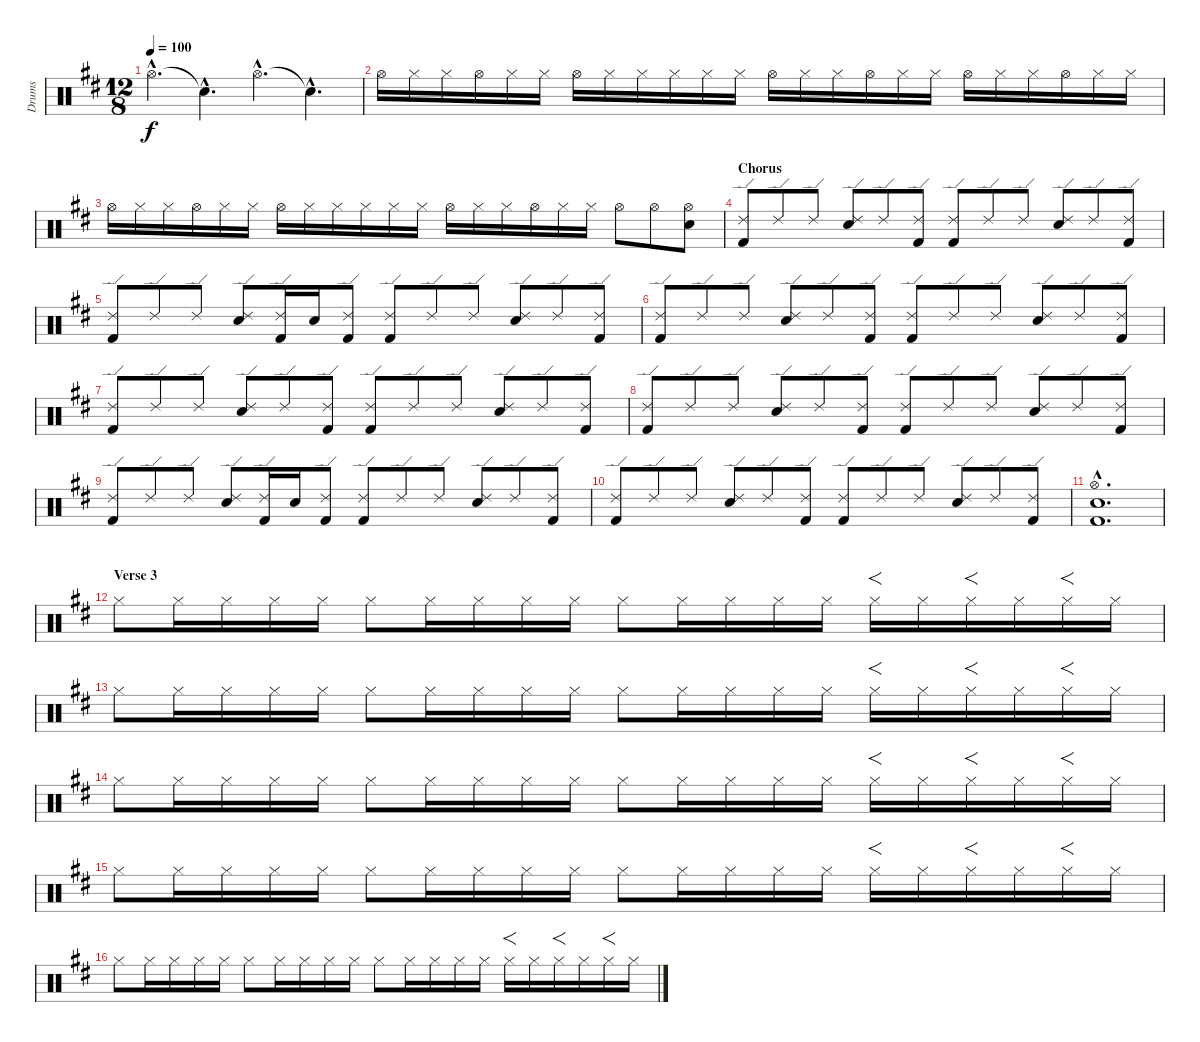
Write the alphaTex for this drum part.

\track ("Drums" "Drums") {instrument percussion}
\staff {score}
\articulation defaults
\ts (12 8)
\tempo 100
\clef neutral
\ks d "Hi-Hat (open)"{hac}.4{d dy f} "Snare (hit)"{hac t}.4{d} "Hi-Hat (open)"{hac}.4{d} "Snare (hit)"{hac t}.4{d}
|
"Hi-Hat (open)".16 "Hi-Hat (closed)".16 "Hi-Hat (closed)".16 "Hi-Hat (open)".16 "Hi-Hat (closed)".16 "Hi-Hat (closed)".16 "Hi-Hat (open)".16 "Hi-Hat (closed)".16 "Hi-Hat (closed)".16 "Hi-Hat (closed)".16 "Hi-Hat (closed)".16 "Hi-Hat (closed)".16 "Hi-Hat (open)".16 "Hi-Hat (closed)".16 "Hi-Hat (closed)".16 "Hi-Hat (open)".16 "Hi-Hat (closed)".16 "Hi-Hat (closed)".16 "Hi-Hat (open)".16 "Hi-Hat (closed)".16 "Hi-Hat (closed)".16 "Hi-Hat (open)".16 "Hi-Hat (closed)".16 "Hi-Hat (closed)".16 |
"Hi-Hat (open)".16 "Hi-Hat (closed)".16 "Hi-Hat (closed)".16 "Hi-Hat (open)".16 "Hi-Hat (closed)".16 "Hi-Hat (closed)".16 "Hi-Hat (open)".16 "Hi-Hat (closed)".16 "Hi-Hat (closed)".16 "Hi-Hat (closed)".16 "Hi-Hat (closed)".16 "Hi-Hat (closed)".16 "Hi-Hat (open)".16 "Hi-Hat (closed)".16 "Hi-Hat (closed)".16 "Hi-Hat (open)".16 "Hi-Hat (closed)".16 "Hi-Hat (closed)".16 "Hi-Hat (open)".8 "Hi-Hat (open)".8 ("Hi-Hat (open)" "Snare (hit) 2").8 |
\section ("" "Chorus")
("Ride (edge) 2" "Kick (hit) 2").8 "Ride (edge) 2".8 "Ride (edge) 2".8 ("Ride (edge) 2" "Snare (hit) 2").8 "Ride (edge) 2".8 ("Ride (edge) 2" "Kick (hit) 2").8 ("Ride (edge) 2" "Kick (hit) 2").8 "Ride (edge) 2".8 "Ride (edge) 2".8 ("Ride (edge) 2" "Snare (hit) 2").8 "Ride (edge) 2".8 ("Ride (edge) 2" "Kick (hit) 2").8 |
("Ride (edge) 2" "Kick (hit) 2").8 "Ride (edge) 2".8 "Ride (edge) 2".8 ("Ride (edge) 2" "Snare (hit) 2").8 ("Ride (edge) 2" "Kick (hit) 2").16 "Snare (hit) 2".16 ("Ride (edge) 2" "Kick (hit) 2").8 ("Ride (edge) 2" "Kick (hit) 2").8 "Ride (edge) 2".8 "Ride (edge) 2".8 ("Ride (edge) 2" "Snare (hit) 2").8 "Ride (edge) 2".8 ("Ride (edge) 2" "Kick (hit) 2").8 |
("Ride (edge) 2" "Kick (hit) 2").8 "Ride (edge) 2".8 "Ride (edge) 2".8 ("Ride (edge) 2" "Snare (hit) 2").8 "Ride (edge) 2".8 ("Ride (edge) 2" "Kick (hit) 2").8 ("Ride (edge) 2" "Kick (hit) 2").8 "Ride (edge) 2".8 "Ride (edge) 2".8 ("Ride (edge) 2" "Snare (hit) 2").8 "Ride (edge) 2".8 ("Ride (edge) 2" "Kick (hit) 2").8 |
("Ride (edge) 2" "Kick (hit) 2").8 "Ride (edge) 2".8 "Ride (edge) 2".8 ("Ride (edge) 2" "Snare (hit) 2").8 "Ride (edge) 2".8 ("Ride (edge) 2" "Kick (hit) 2").8 ("Ride (edge) 2" "Kick (hit) 2").8 "Ride (edge) 2".8 "Ride (edge) 2".8 ("Ride (edge) 2" "Snare (hit) 2").8 "Ride (edge) 2".8 ("Ride (edge) 2" "Kick (hit) 2").8 |
("Ride (edge) 2" "Kick (hit) 2").8 "Ride (edge) 2".8 "Ride (edge) 2".8 ("Ride (edge) 2" "Snare (hit) 2").8 "Ride (edge) 2".8 ("Ride (edge) 2" "Kick (hit) 2").8 ("Ride (edge) 2" "Kick (hit) 2").8 "Ride (edge) 2".8 "Ride (edge) 2".8 ("Ride (edge) 2" "Snare (hit) 2").8 "Ride (edge) 2".8 ("Ride (edge) 2" "Kick (hit) 2").8 |
("Ride (edge) 2" "Kick (hit) 2").8 "Ride (edge) 2".8 "Ride (edge) 2".8 ("Ride (edge) 2" "Snare (hit) 2").8 ("Ride (edge) 2" "Kick (hit) 2").16 "Snare (hit) 2".16 ("Ride (edge) 2" "Kick (hit) 2").8 ("Ride (edge) 2" "Kick (hit) 2").8 "Ride (edge) 2".8 "Ride (edge) 2".8 ("Ride (edge) 2" "Snare (hit) 2").8 "Ride (edge) 2".8 ("Ride (edge) 2" "Kick (hit) 2").8 |
("Ride (edge) 2" "Kick (hit) 2").8 "Ride (edge) 2".8 "Ride (edge) 2".8 ("Ride (edge) 2" "Snare (hit) 2").8 "Ride (edge) 2".8 ("Ride (edge) 2" "Kick (hit) 2").8 ("Ride (edge) 2" "Kick (hit) 2").8 "Ride (edge) 2".8 "Ride (edge) 2".8 ("Ride (edge) 2" "Snare (hit) 2").8 "Ride (edge) 2".8 ("Ride (edge) 2" "Kick (hit) 2").8 |
("Hi-Hat (open)"{hac} "Snare (hit) 2"{hac} "Kick (hit) 2"{hac}).1{d} |
\section ("" "Verse 3")
"Hi-Hat (closed)".8 "Hi-Hat (closed)".16 "Hi-Hat (closed)".16 "Hi-Hat (closed)".16 "Hi-Hat (closed)".16 "Hi-Hat (closed)".8 "Hi-Hat (closed)".16 "Hi-Hat (closed)".16 "Hi-Hat (closed)".16 "Hi-Hat (closed)".16 "Hi-Hat (closed)".8 "Hi-Hat (closed)".16 "Hi-Hat (closed)".16 "Hi-Hat (closed)".16 "Hi-Hat (closed)".16 "Hi-Hat (closed)".16{f} "Hi-Hat (closed)".16 "Hi-Hat (closed)".16{f} "Hi-Hat (closed)".16 "Hi-Hat (closed)".16{f} "Hi-Hat (closed)".16 |
"Hi-Hat (closed)".8 "Hi-Hat (closed)".16 "Hi-Hat (closed)".16 "Hi-Hat (closed)".16 "Hi-Hat (closed)".16 "Hi-Hat (closed)".8 "Hi-Hat (closed)".16 "Hi-Hat (closed)".16 "Hi-Hat (closed)".16 "Hi-Hat (closed)".16 "Hi-Hat (closed)".8 "Hi-Hat (closed)".16 "Hi-Hat (closed)".16 "Hi-Hat (closed)".16 "Hi-Hat (closed)".16 "Hi-Hat (closed)".16{f} "Hi-Hat (closed)".16 "Hi-Hat (closed)".16{f} "Hi-Hat (closed)".16 "Hi-Hat (closed)".16{f} "Hi-Hat (closed)".16 |
"Hi-Hat (closed)".8 "Hi-Hat (closed)".16 "Hi-Hat (closed)".16 "Hi-Hat (closed)".16 "Hi-Hat (closed)".16 "Hi-Hat (closed)".8 "Hi-Hat (closed)".16 "Hi-Hat (closed)".16 "Hi-Hat (closed)".16 "Hi-Hat (closed)".16 "Hi-Hat (closed)".8 "Hi-Hat (closed)".16 "Hi-Hat (closed)".16 "Hi-Hat (closed)".16 "Hi-Hat (closed)".16 "Hi-Hat (closed)".16{f} "Hi-Hat (closed)".16 "Hi-Hat (closed)".16{f} "Hi-Hat (closed)".16 "Hi-Hat (closed)".16{f} "Hi-Hat (closed)".16 |
"Hi-Hat (closed)".8 "Hi-Hat (closed)".16 "Hi-Hat (closed)".16 "Hi-Hat (closed)".16 "Hi-Hat (closed)".16 "Hi-Hat (closed)".8 "Hi-Hat (closed)".16 "Hi-Hat (closed)".16 "Hi-Hat (closed)".16 "Hi-Hat (closed)".16 "Hi-Hat (closed)".8 "Hi-Hat (closed)".16 "Hi-Hat (closed)".16 "Hi-Hat (closed)".16 "Hi-Hat (closed)".16 "Hi-Hat (closed)".16{f} "Hi-Hat (closed)".16 "Hi-Hat (closed)".16{f} "Hi-Hat (closed)".16 "Hi-Hat (closed)".16{f} "Hi-Hat (closed)".16 |
"Hi-Hat (closed)".8 "Hi-Hat (closed)".16 "Hi-Hat (closed)".16 "Hi-Hat (closed)".16 "Hi-Hat (closed)".16 "Hi-Hat (closed)".8 "Hi-Hat (closed)".16 "Hi-Hat (closed)".16 "Hi-Hat (closed)".16 "Hi-Hat (closed)".16 "Hi-Hat (closed)".8 "Hi-Hat (closed)".16 "Hi-Hat (closed)".16 "Hi-Hat (closed)".16 "Hi-Hat (closed)".16 "Hi-Hat (closed)".16{f} "Hi-Hat (closed)".16 "Hi-Hat (closed)".16{f} "Hi-Hat (closed)".16 "Hi-Hat (closed)".16{f} "Hi-Hat (closed)".16
